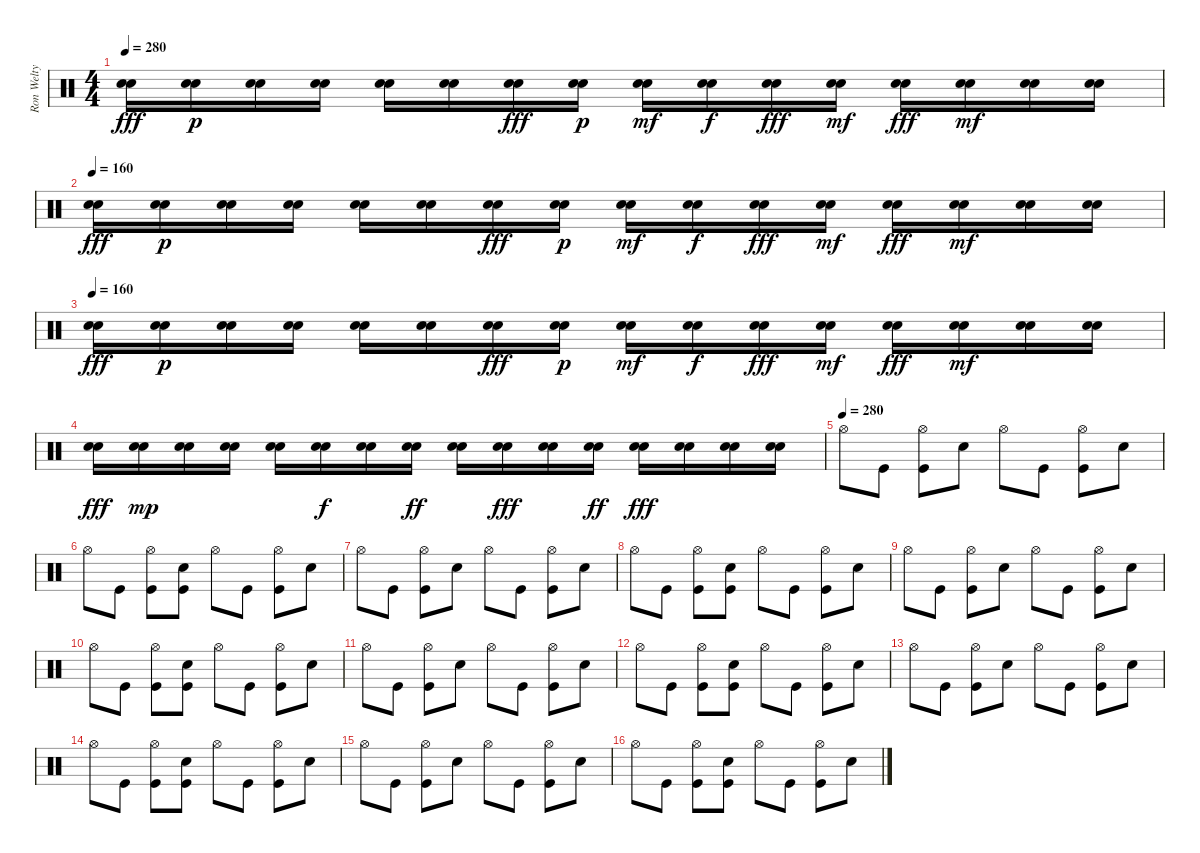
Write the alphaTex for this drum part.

\track ("Ron Welty" "Ron Welty") {instrument percussion}
\staff {score}
\articulation defaults
\ts (4 4)
\tempo 280
\tempo 160
\tempo 280
\clef neutral
\ks c
("Snare (hit) 2" "Electric Snare (hit)").16{dy fff} ("Snare (hit) 2" "Electric Snare (hit)").16{dy p} ("Snare (hit) 2" "Electric Snare (hit)").16 ("Snare (hit) 2" "Electric Snare (hit)").16 ("Snare (hit) 2" "Electric Snare (hit)").16 ("Snare (hit) 2" "Electric Snare (hit)").16 ("Snare (hit) 2" "Electric Snare (hit)").16{dy fff} ("Snare (hit) 2" "Electric Snare (hit)").16{dy p} ("Snare (hit) 2" "Electric Snare (hit)").16{dy mf} ("Snare (hit) 2" "Electric Snare (hit)").16{dy f} ("Snare (hit) 2" "Electric Snare (hit)").16{dy fff} ("Snare (hit) 2" "Electric Snare (hit)").16{dy mf} ("Snare (hit) 2" "Electric Snare (hit)").16{dy fff} ("Snare (hit) 2" "Electric Snare (hit)").16{dy mf} ("Snare (hit) 2" "Electric Snare (hit)").16 ("Snare (hit) 2" "Electric Snare (hit)").16 |
\tempo 160
("Snare (hit) 2" "Electric Snare (hit)").16{dy fff} ("Snare (hit) 2" "Electric Snare (hit)").16{dy p} ("Snare (hit) 2" "Electric Snare (hit)").16 ("Snare (hit) 2" "Electric Snare (hit)").16 ("Snare (hit) 2" "Electric Snare (hit)").16 ("Snare (hit) 2" "Electric Snare (hit)").16 ("Snare (hit) 2" "Electric Snare (hit)").16{dy fff} ("Snare (hit) 2" "Electric Snare (hit)").16{dy p} ("Snare (hit) 2" "Electric Snare (hit)").16{dy mf} ("Snare (hit) 2" "Electric Snare (hit)").16{dy f} ("Snare (hit) 2" "Electric Snare (hit)").16{dy fff} ("Snare (hit) 2" "Electric Snare (hit)").16{dy mf} ("Snare (hit) 2" "Electric Snare (hit)").16{dy fff} ("Snare (hit) 2" "Electric Snare (hit)").16{dy mf} ("Snare (hit) 2" "Electric Snare (hit)").16 ("Snare (hit) 2" "Electric Snare (hit)").16 |
\tempo 160
("Snare (hit) 2" "Electric Snare (hit)").16{dy fff} ("Snare (hit) 2" "Electric Snare (hit)").16{dy p} ("Snare (hit) 2" "Electric Snare (hit)").16 ("Snare (hit) 2" "Electric Snare (hit)").16 ("Snare (hit) 2" "Electric Snare (hit)").16 ("Snare (hit) 2" "Electric Snare (hit)").16 ("Snare (hit) 2" "Electric Snare (hit)").16{dy fff} ("Snare (hit) 2" "Electric Snare (hit)").16{dy p} ("Snare (hit) 2" "Electric Snare (hit)").16{dy mf} ("Snare (hit) 2" "Electric Snare (hit)").16{dy f} ("Snare (hit) 2" "Electric Snare (hit)").16{dy fff} ("Snare (hit) 2" "Electric Snare (hit)").16{dy mf} ("Snare (hit) 2" "Electric Snare (hit)").16{dy fff} ("Snare (hit) 2" "Electric Snare (hit)").16{dy mf} ("Snare (hit) 2" "Electric Snare (hit)").16 ("Snare (hit) 2" "Electric Snare (hit)").16 |
("Snare (hit) 2" "Electric Snare (hit)").16{dy fff} ("Snare (hit) 2" "Electric Snare (hit)").16{dy mp} ("Snare (hit) 2" "Electric Snare (hit)").16 ("Snare (hit) 2" "Electric Snare (hit)").16 ("Snare (hit) 2" "Electric Snare (hit)").16 ("Snare (hit) 2" "Electric Snare (hit)").16{dy f} ("Snare (hit) 2" "Electric Snare (hit)").16 ("Snare (hit) 2" "Electric Snare (hit)").16{dy ff} ("Snare (hit) 2" "Electric Snare (hit)").16 ("Snare (hit) 2" "Electric Snare (hit)").16{dy fff} ("Snare (hit) 2" "Electric Snare (hit)").16 ("Snare (hit) 2" "Electric Snare (hit)").16{dy ff} ("Snare (hit) 2" "Electric Snare (hit)").16{dy fff} ("Snare (hit) 2" "Electric Snare (hit)").16 ("Snare (hit) 2" "Electric Snare (hit)").16 ("Snare (hit) 2" "Electric Snare (hit)").16 |
\tempo (280)
"Hi-Hat (open)".8 "Kick (hit)".8 ("Hi-Hat (open)" "Kick (hit)").8 "Snare (hit) 2".8 "Hi-Hat (open)".8 "Kick (hit)".8 ("Hi-Hat (open)" "Kick (hit)").8 "Snare (hit) 2".8 |
"Hi-Hat (open)".8 "Kick (hit)".8 ("Hi-Hat (open)" "Kick (hit)").8 ("Snare (hit) 2" "Kick (hit)").8 "Hi-Hat (open)".8 "Kick (hit)".8 ("Hi-Hat (open)" "Kick (hit)").8 "Snare (hit) 2".8 |
"Hi-Hat (open)".8 "Kick (hit)".8 ("Hi-Hat (open)" "Kick (hit)").8 "Snare (hit) 2".8 "Hi-Hat (open)".8 "Kick (hit)".8 ("Hi-Hat (open)" "Kick (hit)").8 "Snare (hit) 2".8 |
"Hi-Hat (open)".8 "Kick (hit)".8 ("Hi-Hat (open)" "Kick (hit)").8 ("Snare (hit) 2" "Kick (hit)").8 "Hi-Hat (open)".8 "Kick (hit)".8 ("Hi-Hat (open)" "Kick (hit)").8 "Snare (hit) 2".8 |
"Hi-Hat (open)".8 "Kick (hit)".8 ("Hi-Hat (open)" "Kick (hit)").8 "Snare (hit) 2".8 "Hi-Hat (open)".8 "Kick (hit)".8 ("Hi-Hat (open)" "Kick (hit)").8 "Snare (hit) 2".8 |
"Hi-Hat (open)".8 "Kick (hit)".8 ("Hi-Hat (open)" "Kick (hit)").8 ("Snare (hit) 2" "Kick (hit)").8 "Hi-Hat (open)".8 "Kick (hit)".8 ("Hi-Hat (open)" "Kick (hit)").8 "Snare (hit) 2".8 |
"Hi-Hat (open)".8 "Kick (hit)".8 ("Hi-Hat (open)" "Kick (hit)").8 "Snare (hit) 2".8 "Hi-Hat (open)".8 "Kick (hit)".8 ("Hi-Hat (open)" "Kick (hit)").8 "Snare (hit) 2".8 |
"Hi-Hat (open)".8 "Kick (hit)".8 ("Hi-Hat (open)" "Kick (hit)").8 ("Snare (hit) 2" "Kick (hit)").8 "Hi-Hat (open)".8 "Kick (hit)".8 ("Hi-Hat (open)" "Kick (hit)").8 "Snare (hit) 2".8 |
"Hi-Hat (open)".8 "Kick (hit)".8 ("Hi-Hat (open)" "Kick (hit)").8 "Snare (hit) 2".8 "Hi-Hat (open)".8 "Kick (hit)".8 ("Hi-Hat (open)" "Kick (hit)").8 "Snare (hit) 2".8 |
"Hi-Hat (open)".8 "Kick (hit)".8 ("Hi-Hat (open)" "Kick (hit)").8 ("Snare (hit) 2" "Kick (hit)").8 "Hi-Hat (open)".8 "Kick (hit)".8 ("Hi-Hat (open)" "Kick (hit)").8 "Snare (hit) 2".8 |
"Hi-Hat (open)".8 "Kick (hit)".8 ("Hi-Hat (open)" "Kick (hit)").8 "Snare (hit) 2".8 "Hi-Hat (open)".8 "Kick (hit)".8 ("Hi-Hat (open)" "Kick (hit)").8 "Snare (hit) 2".8 |
"Hi-Hat (open)".8 "Kick (hit)".8 ("Hi-Hat (open)" "Kick (hit)").8 ("Snare (hit) 2" "Kick (hit)").8 "Hi-Hat (open)".8 "Kick (hit)".8 ("Hi-Hat (open)" "Kick (hit)").8 "Snare (hit) 2".8
